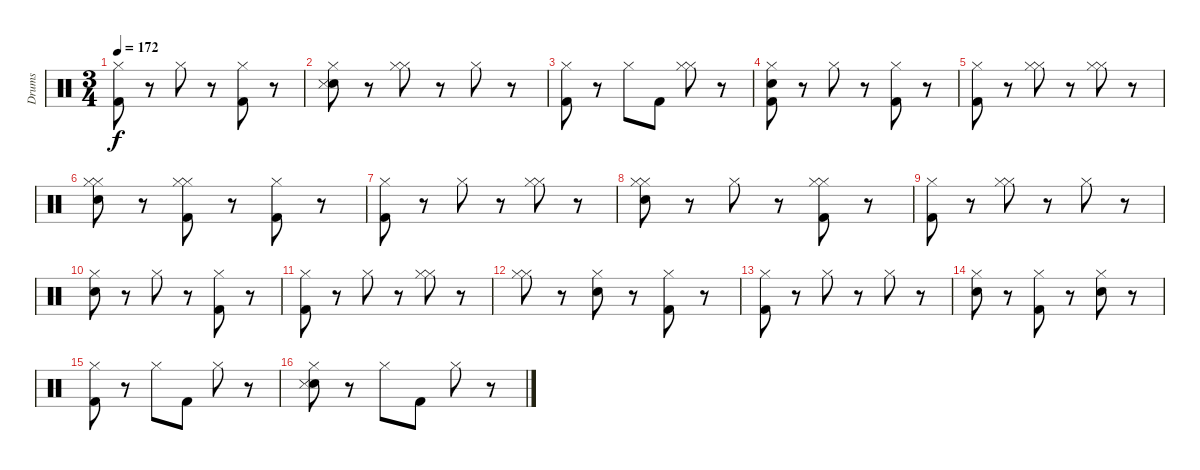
\track ("Drums" "Drums") {instrument percussion}
\staff {score}
\articulation defaults
\ts (3 4)
\tempo 172
\clef neutral
\ks c
("Hi-Hat (closed)" "Kick (hit) 2").8{dy f} r.8 "Hi-Hat (closed)".8 r.8 ("Hi-Hat (closed)" "Kick (hit) 2").8 r.8 |
("Snare (hit) 2" "Hi-Hat (closed)" "Snare (side stick) 3").8 r.8 ("Hi-Hat (closed)" "Hi-Hat (closed)").8 r.8 "Hi-Hat (closed)".8 r.8 |
("Hi-Hat (closed)" "Kick (hit) 2").8 r.8 "Hi-Hat (closed)".8 "Kick (hit) 2".8 ("Hi-Hat (closed)" "Hi-Hat (closed)").8 r.8 |
("Snare (hit) 2" "Kick (hit) 2" "Hi-Hat (closed)").8 r.8 "Hi-Hat (closed)".8 r.8 ("Kick (hit) 2" "Hi-Hat (closed)").8 r.8 |
("Hi-Hat (closed)" "Kick (hit) 2").8 r.8 ("Hi-Hat (closed)" "Hi-Hat (closed)").8 r.8 ("Hi-Hat (closed)" "Hi-Hat (closed)").8 r.8 |
("Snare (hit) 2" "Hi-Hat (closed)" "Hi-Hat (closed)").8 r.8 ("Hi-Hat (closed)" "Kick (hit) 2" "Hi-Hat (closed)").8 r.8 ("Hi-Hat (closed)" "Kick (hit) 2").8 r.8 |
("Hi-Hat (closed)" "Kick (hit) 2").8 r.8 "Hi-Hat (closed)".8 r.8 ("Hi-Hat (closed)" "Hi-Hat (closed)").8 r.8 |
("Snare (hit) 2" "Hi-Hat (closed)" "Hi-Hat (closed)").8 r.8 "Hi-Hat (closed)".8 r.8 ("Kick (hit) 2" "Hi-Hat (closed)" "Hi-Hat (closed)").8 r.8 |
("Hi-Hat (closed)" "Kick (hit) 2").8 r.8 ("Hi-Hat (closed)" "Hi-Hat (closed)").8 r.8 "Hi-Hat (closed)".8 r.8 |
("Hi-Hat (closed)" "Snare (hit) 2").8 r.8 "Hi-Hat (closed)".8 r.8 ("Hi-Hat (closed)" "Kick (hit) 2").8 r.8 |
("Hi-Hat (closed)" "Kick (hit) 2").8 r.8 "Hi-Hat (closed)".8 r.8 ("Hi-Hat (closed)" "Hi-Hat (closed)").8 r.8 |
("Hi-Hat (closed)" "Hi-Hat (closed)").8 r.8 ("Snare (hit) 2" "Hi-Hat (closed)").8 r.8 ("Hi-Hat (closed)" "Kick (hit) 2").8 r.8 |
("Hi-Hat (closed)" "Kick (hit) 2").8 r.8 "Hi-Hat (closed)".8 r.8 "Hi-Hat (closed)".8 r.8 |
("Snare (hit) 2" "Hi-Hat (closed)").8 r.8 ("Hi-Hat (closed)" "Kick (hit) 2").8 r.8 ("Hi-Hat (closed)" "Snare (hit) 2").8 r.8 |
("Kick (hit) 2" "Hi-Hat (closed)").8 r.8 "Hi-Hat (closed)".8 "Kick (hit) 2".8 "Hi-Hat (closed)".8 r.8 |
("Snare (hit) 2" "Hi-Hat (closed)" "Snare (side stick) 3").8 r.8 "Hi-Hat (closed)".8 "Kick (hit) 2".8 "Hi-Hat (closed)".8 r.8
